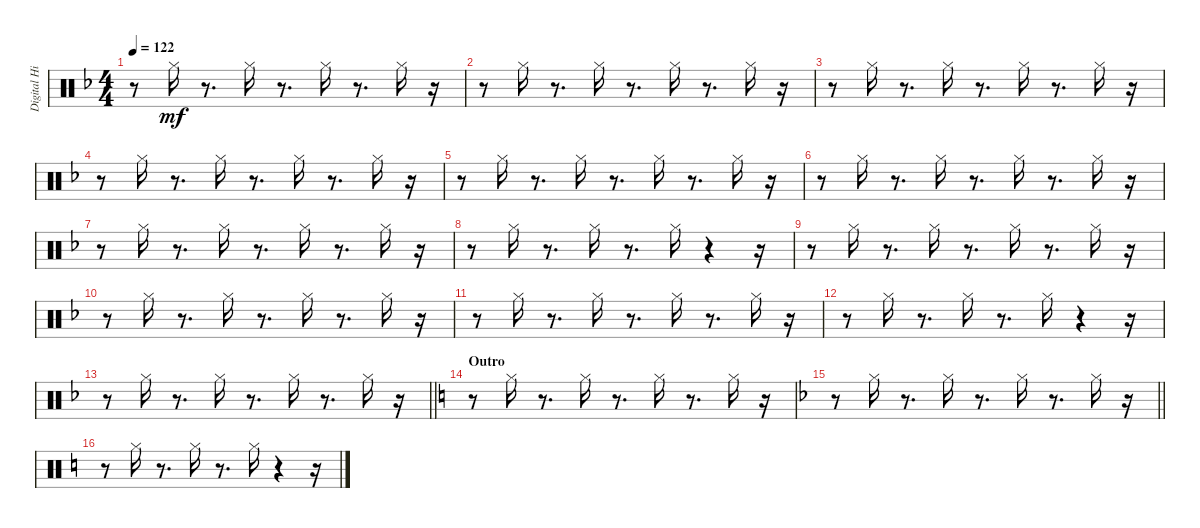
\track ("Digital Hi-Hat (Stephen Morris)" "Digital Hi") {instrument percussion}
\staff {score}
\articulation defaults
\ts (4 4)
\tempo 122
\clef neutral
\ks f
r.8{dy mf} "Hi-Hat (closed)".16 r.8{d} "Hi-Hat (closed)".16 r.8{d} "Hi-Hat (closed)".16 r.8{d} "Hi-Hat (closed)".16 r.16 |
r.8 "Hi-Hat (closed)".16 r.8{d} "Hi-Hat (closed)".16 r.8{d} "Hi-Hat (closed)".16 r.8{d} "Hi-Hat (closed)".16 r.16 |
r.8 "Hi-Hat (closed)".16 r.8{d} "Hi-Hat (closed)".16 r.8{d} "Hi-Hat (closed)".16 r.8{d} "Hi-Hat (closed)".16 r.16 |
r.8 "Hi-Hat (closed)".16 r.8{d} "Hi-Hat (closed)".16 r.8{d} "Hi-Hat (closed)".16 r.8{d} "Hi-Hat (closed)".16 r.16 |
r.8 "Hi-Hat (closed)".16 r.8{d} "Hi-Hat (closed)".16 r.8{d} "Hi-Hat (closed)".16 r.8{d} "Hi-Hat (closed)".16 r.16 |
r.8 "Hi-Hat (closed)".16 r.8{d} "Hi-Hat (closed)".16 r.8{d} "Hi-Hat (closed)".16 r.8{d} "Hi-Hat (closed)".16 r.16 |
r.8 "Hi-Hat (closed)".16 r.8{d} "Hi-Hat (closed)".16 r.8{d} "Hi-Hat (closed)".16 r.8{d} "Hi-Hat (closed)".16 r.16 |
r.8 "Hi-Hat (closed)".16 r.8{d} "Hi-Hat (closed)".16 r.8{d} "Hi-Hat (closed)".16 r.4 r.16 |
r.8 "Hi-Hat (closed)".16 r.8{d} "Hi-Hat (closed)".16 r.8{d} "Hi-Hat (closed)".16 r.8{d} "Hi-Hat (closed)".16 r.16 |
r.8 "Hi-Hat (closed)".16 r.8{d} "Hi-Hat (closed)".16 r.8{d} "Hi-Hat (closed)".16 r.8{d} "Hi-Hat (closed)".16 r.16 |
r.8 "Hi-Hat (closed)".16 r.8{d} "Hi-Hat (closed)".16 r.8{d} "Hi-Hat (closed)".16 r.8{d} "Hi-Hat (closed)".16 r.16 |
r.8 "Hi-Hat (closed)".16 r.8{d} "Hi-Hat (closed)".16 r.8{d} "Hi-Hat (closed)".16 r.4 r.16 |
\barLineRight lightlight
r.8 "Hi-Hat (closed)".16 r.8{d} "Hi-Hat (closed)".16 r.8{d} "Hi-Hat (closed)".16 r.8{d} "Hi-Hat (closed)".16 r.16 |
\section ("" "Outro")
\ks c
r.8 "Hi-Hat (closed)".16 r.8{d} "Hi-Hat (closed)".16 r.8{d} "Hi-Hat (closed)".16 r.8{d} "Hi-Hat (closed)".16 r.16 |
\barLineRight lightlight
\ks f
r.8 "Hi-Hat (closed)".16 r.8{d} "Hi-Hat (closed)".16 r.8{d} "Hi-Hat (closed)".16 r.8{d} "Hi-Hat (closed)".16 r.16 |
\ks c
r.8 "Hi-Hat (closed)".16 r.8{d} "Hi-Hat (closed)".16 r.8{d} "Hi-Hat (closed)".16 r.4 r.16
